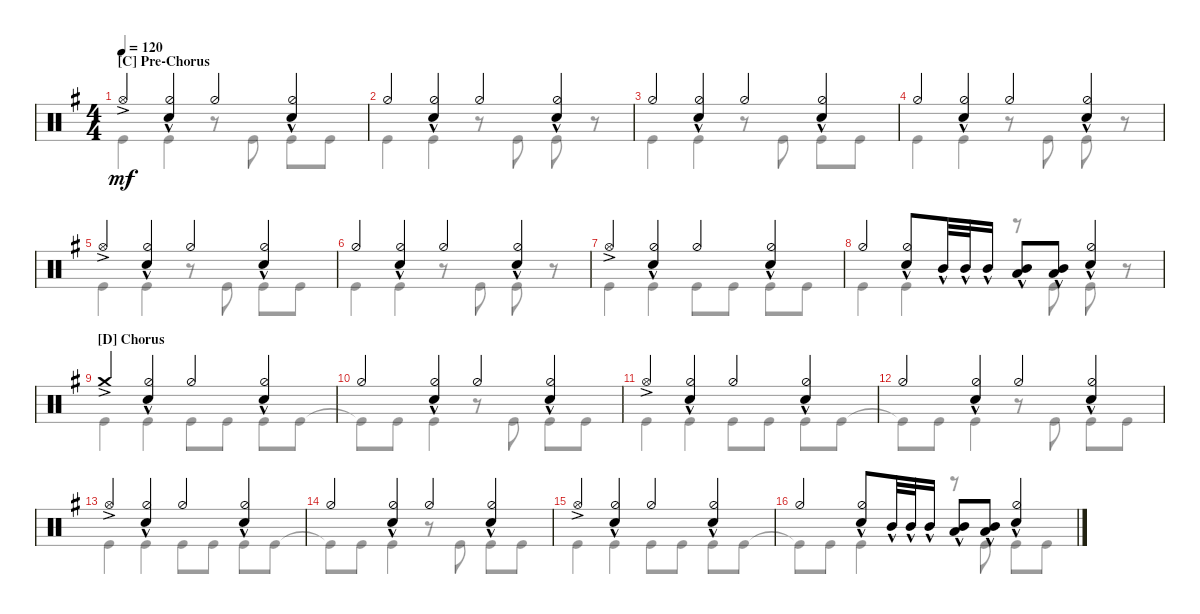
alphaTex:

\defaultSystemsLayout 4
\bracketExtendMode groupsimilarinstruments
\singleTrackTrackNamePolicy hidden
\multiTrackTrackNamePolicy hidden
\firstSystemTrackNameOrientation horizontal
\otherSystemsTrackNameOrientation horizontal
\track ("Maksim Udalov" "Drums") {instrument percussion}
\staff {score}
\articulation defaults
\voice
\ts (4 4)
\section ("C" "Pre-Chorus")
\tempo 120
\clef neutral
\scale
1.02648
\ks g "Hi-Hat (open)"{ac}.4{dy mf}
("Snare (hit) 2"{hac} "Hi-Hat (half)").4 "Hi-Hat (half)".4 ("Snare (hit) 2"{hac} "Hi-Hat (half)").4 |
\scale
0.973518 "Hi-Hat (half)".4 ("Snare (hit) 2"{hac} "Hi-Hat (half)").4 "Hi-Hat (half)".4 ("Snare (hit) 2"{hac} "Hi-Hat (half)").4 |
\scale
1.02648 "Hi-Hat (half)".4 ("Snare (hit) 2"{hac} "Hi-Hat (half)").4 "Hi-Hat (half)".4 ("Snare (hit) 2"{hac} "Hi-Hat (half)").4 |
\scale
0.973518 "Hi-Hat (half)".4 ("Snare (hit) 2"{hac} "Hi-Hat (half)").4 "Hi-Hat (half)".4 ("Snare (hit) 2"{hac} "Hi-Hat (half)").4 |
\scale
1.02648 "Hi-Hat (open)"{ac}.4 ("Snare (hit) 2"{hac} "Hi-Hat (half)").4 "Hi-Hat (half)".4 ("Snare (hit) 2"{hac} "Hi-Hat (half)").4 |
\scale
0.973518 "Hi-Hat (half)".4 ("Snare (hit) 2"{hac} "Hi-Hat (half)").4 "Hi-Hat (half)".4 ("Snare (hit) 2"{hac} "Hi-Hat (half)").4 |
\scale
1.02648 "Hi-Hat (open)"{ac}.4 ("Snare (hit) 2"{hac} "Hi-Hat (half)").4 "Hi-Hat (half)".4 ("Snare (hit) 2"{hac} "Hi-Hat (half)").4 |
\scale
0.973518 "Hi-Hat (half)".4 ("Hi-Hat (half)" "Snare (hit) 2"{hac}).8 "Mid Tom (hit)"{hac}.32 "Mid Tom (hit)"{hac}.32 "Mid Tom (hit)"{hac}.16 ("Low Tom (hit)"{hac} "Mid Tom (hit)"{hac}).8 ("Low Tom (hit)"{hac} "Mid Tom (hit)"{hac}).8 ("Snare (hit) 2"{hac} "Hi-Hat (half)").4 |
\section ("D" "Chorus")
\scale
1.02648 "Crash medium (hit)"{ac}.4 ("Snare (hit) 2"{hac} "Hi-Hat (half)").4 "Hi-Hat (half)".4 ("Snare (hit) 2"{hac} "Hi-Hat (half)").4 |
\scale
0.973518 "Hi-Hat (half)".4 ("Hi-Hat (half)" "Snare (hit) 2"{hac}).4 "Hi-Hat (half)".4 ("Hi-Hat (half)" "Snare (hit) 2"{hac}).4 |
\scale
1.02648 "Hi-Hat (open)"{ac}.4 ("Snare (hit) 2"{hac} "Hi-Hat (half)").4 "Hi-Hat (half)".4 ("Snare (hit) 2"{hac} "Hi-Hat (half)").4 |
\scale
0.973518 "Hi-Hat (half)".4 ("Hi-Hat (half)" "Snare (hit) 2"{hac}).4 "Hi-Hat (half)".4 ("Hi-Hat (half)" "Snare (hit) 2"{hac}).4 |
\scale
1.02648 "Hi-Hat (open)"{ac}.4 ("Snare (hit) 2"{hac} "Hi-Hat (half)").4 "Hi-Hat (half)".4 ("Snare (hit) 2"{hac} "Hi-Hat (half)").4 |
\scale
0.973518 "Hi-Hat (half)".4 ("Hi-Hat (half)" "Snare (hit) 2"{hac}).4 "Hi-Hat (half)".4 ("Hi-Hat (half)" "Snare (hit) 2"{hac}).4 |
\scale
1.02648 "Hi-Hat (open)"{ac}.4 ("Snare (hit) 2"{hac} "Hi-Hat (half)").4 "Hi-Hat (half)".4 ("Snare (hit) 2"{hac} "Hi-Hat (half)").4 |
\scale
0.973518 "Hi-Hat (half)".4 ("Hi-Hat (half)" "Snare (hit) 2"{hac}).8 "Mid Tom (hit)"{hac}.32 "Mid Tom (hit)"{hac}.32 "Mid Tom (hit)"{hac}.16 ("Low Tom (hit)"{hac} "Mid Tom (hit)"{hac}).8 ("Low Tom (hit)"{hac} "Mid Tom (hit)"{hac}).8 ("Snare (hit) 2"{hac} "Hi-Hat (half)").4
\voice
\clef neutral
\ottava regular
\simile none
\scale
1.02648
\ks g "Kick (hit)".4{dy mf} "Kick (hit)".4
r.8 "Kick (hit)".8 "Kick (hit)".8 "Kick (hit)".8 |
\scale
0.973518 "Kick (hit)".4 "Kick (hit)".4 r.8 "Kick (hit)".8 "Kick (hit)".8 r.8 |
\scale
1.02648 "Kick (hit)".4 "Kick (hit)".4 r.8 "Kick (hit)".8 "Kick (hit)".8 "Kick (hit)".8 |
\scale
0.973518 "Kick (hit)".4 "Kick (hit)".4 r.8 "Kick (hit)".8 "Kick (hit)".8 r.8 |
\scale
1.02648 "Kick (hit)".4 "Kick (hit)".4 r.8 "Kick (hit)".8 "Kick (hit)".8 "Kick (hit)".8 |
\scale
0.973518 "Kick (hit)".4 "Kick (hit)".4 r.8 "Kick (hit)".8 "Kick (hit)".8 r.8 |
\scale
1.02648 "Kick (hit)".4 "Kick (hit)".4 "Kick (hit)".8 "Kick (hit)".8 "Kick (hit)".8 "Kick (hit)".8 |
\scale
0.973518 "Kick (hit)".4 "Kick (hit)".4 r.8 "Kick (hit)".8 "Kick (hit)".8 r.8 |
\scale
1.02648 "Kick (hit)".4 "Kick (hit)".4 "Kick (hit)".8 "Kick (hit)".8 "Kick (hit)".8 "Kick (hit)".8 |
\scale
0.973518 "Kick (hit)"{t}.8 "Kick (hit)".8 "Kick (hit)".4 r.8 "Kick (hit)".8 "Kick (hit)".8 "Kick (hit)".8 |
\scale
1.02648 "Kick (hit)".4 "Kick (hit)".4 "Kick (hit)".8 "Kick (hit)".8 "Kick (hit)".8 "Kick (hit)".8 |
\scale
0.973518 "Kick (hit)"{t}.8 "Kick (hit)".8 "Kick (hit)".4 r.8 "Kick (hit)".8 "Kick (hit)".8 "Kick (hit)".8 |
\scale
1.02648 "Kick (hit)".4 "Kick (hit)".4 "Kick (hit)".8 "Kick (hit)".8 "Kick (hit)".8 "Kick (hit)".8 |
\scale
0.973518 "Kick (hit)"{t}.8 "Kick (hit)".8 "Kick (hit)".4 r.8 "Kick (hit)".8 "Kick (hit)".8 "Kick (hit)".8 |
\scale
1.02648 "Kick (hit)".4 "Kick (hit)".4 "Kick (hit)".8 "Kick (hit)".8 "Kick (hit)".8 "Kick (hit)".8 |
\scale
0.973518 "Kick (hit)"{t}.8 "Kick (hit)".8 "Kick (hit)".4 r.8 "Kick (hit)".8 "Kick (hit)".8 "Kick (hit)".8
